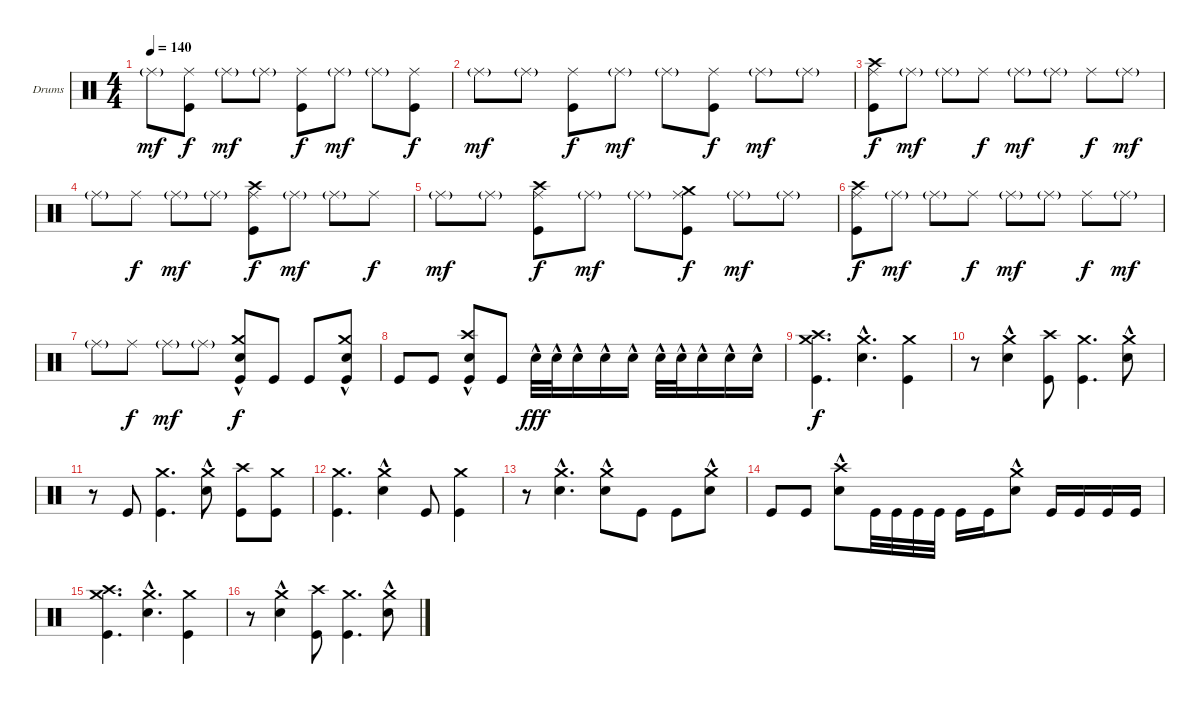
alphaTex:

\bracketExtendMode groupsimilarinstruments
\firstSystemTrackNameOrientation horizontal
\otherSystemsTrackNameOrientation horizontal
\track ("Drumkit (Christoph)" "Drums") {instrument percussion}
\staff {score}
\articulation defaults
\ts (4 4)
\tempo 140
\clef neutral
\ks c "Ride (middle)"{g}.8{dy mf}
("Ride (middle)" "Kick (hit)").8{dy f} "Ride (middle)"{g}.8{dy mf} "Ride (middle)"{g}.8 ("Ride (middle)" "Kick (hit)").8{dy f} "Ride (middle)"{g}.8{dy mf} "Ride (middle)"{g}.8 ("Ride (middle)" "Kick (hit)").8{dy f} |
"Ride (middle)"{g}.8{dy mf} "Ride (middle)"{g}.8 ("Ride (middle)" "Kick (hit)").8{dy f} "Ride (middle)"{g}.8{dy mf} "Ride (middle)"{g}.8 ("Ride (middle)" "Kick (hit)").8{dy f} "Ride (middle)"{g}.8{dy mf} "Ride (middle)"{g}.8 |
("Ride (middle)" "Kick (hit)" "Crash high (hit)").8{dy f} "Ride (middle)"{g}.8{dy mf} "Ride (middle)"{g}.8 "Ride (middle)".8{dy f} "Ride (middle)"{g}.8{dy mf} "Ride (middle)"{g}.8 "Ride (middle)".8{dy f} "Ride (middle)"{g}.8{dy mf} |
"Ride (middle)"{g}.8 "Ride (middle)".8{dy f} "Ride (middle)"{g}.8{dy mf} "Ride (middle)"{g}.8 ("Ride (middle)" "Kick (hit)" "Crash high (hit)").8{dy f} "Ride (middle)"{g}.8{dy mf} "Ride (middle)"{g}.8 "Ride (middle)".8{dy f} |
"Ride (middle)"{g}.8{dy mf} "Ride (middle)"{g}.8 ("Ride (middle)" "Kick (hit)" "Crash high (hit)").8{dy f} "Ride (middle)"{g}.8{dy mf} "Ride (middle)"{g}.8 ("Ride (middle)" "Kick (hit)" "Crash medium (hit)").8{dy f} "Ride (middle)"{g}.8{dy mf} "Ride (middle)"{g}.8 |
("Ride (middle)" "Kick (hit)" "Crash high (hit)").8{dy f} "Ride (middle)"{g}.8{dy mf} "Ride (middle)"{g}.8 "Ride (middle)".8{dy f} "Ride (middle)"{g}.8{dy mf} "Ride (middle)"{g}.8 "Ride (middle)".8{dy f} "Ride (middle)"{g}.8{dy mf} |
"Ride (middle)"{g}.8 "Ride (middle)".8{dy f} "Ride (middle)"{g}.8{dy mf} "Ride (middle)"{g}.8 ("Crash medium (hit)" "Kick (hit)" "Snare (hit) 2"{hac}).8{dy f} "Kick (hit)".8 "Kick (hit)".8 ("Crash medium (hit)" "Kick (hit)" "Snare (hit) 2"{hac}).8 |
"Kick (hit)".8 "Kick (hit)".8 ("Crash high (hit)" "Kick (hit)" "Snare (hit) 2"{hac}).8 "Kick (hit)".8 "Snare (hit) 2"{hac}.32{dy fff} "Snare (hit) 2"{hac}.32 "Snare (hit) 2"{hac}.16 "Snare (hit) 2"{hac}.16 "Snare (hit) 2"{hac}.16 "Snare (hit) 2"{hac}.32 "Snare (hit) 2"{hac}.32 "Snare (hit) 2"{hac}.16 "Snare (hit) 2"{hac}.16 "Snare (hit) 2"{hac}.16 |
("Crash medium (hit)" "Kick (hit)" "Crash high (hit)").4{d dy f} ("Crash medium (hit)" "Snare (hit) 2"{hac}).4{d} ("Crash medium (hit)" "Kick (hit)").4 |
r.8 ("Crash medium (hit)" "Snare (hit) 2"{hac}).4 ("Crash high (hit)" "Kick (hit)").8 ("Crash medium (hit)" "Kick (hit)").4{d} ("Crash medium (hit)" "Snare (hit) 2"{hac}).8 |
r.8 "Kick (hit)".8 ("Crash medium (hit)" "Kick (hit)").4{d} ("Crash medium (hit)" "Snare (hit) 2"{hac}).8 ("Crash high (hit)" "Kick (hit)").8 ("Crash medium (hit)" "Kick (hit)").8 |
("Crash medium (hit)" "Kick (hit)").4{d} ("Crash medium (hit)" "Snare (hit) 2"{hac}).4 "Kick (hit)".8 ("Crash medium (hit)" "Kick (hit)").4 |
r.8 ("Crash medium (hit)" "Snare (hit) 2"{hac}).4{d} ("Crash medium (hit)" "Snare (hit) 2"{hac}).8 "Kick (hit)".8 "Kick (hit)".8 ("Crash medium (hit)" "Snare (hit) 2"{hac}).8 |
"Kick (hit)".8 "Kick (hit)".8 ("Crash high (hit)" "Snare (hit) 2"{hac}).8 "Kick (hit)".32 "Kick (hit)".32 "Kick (hit)".32 "Kick (hit)".32 "Kick (hit)".16 "Kick (hit)".16 ("Crash medium (hit)" "Snare (hit) 2"{hac}).8 "Kick (hit)".16 "Kick (hit)".16 "Kick (hit)".16 "Kick (hit)".16 |
("Crash medium (hit)" "Kick (hit)" "Crash high (hit)").4{d} ("Crash medium (hit)" "Snare (hit) 2"{hac}).4{d} ("Crash medium (hit)" "Kick (hit)").4 |
r.8 ("Crash medium (hit)" "Snare (hit) 2"{hac}).4 ("Crash high (hit)" "Kick (hit)").8 ("Crash medium (hit)" "Kick (hit)").4{d} ("Crash medium (hit)" "Snare (hit) 2"{hac}).8
